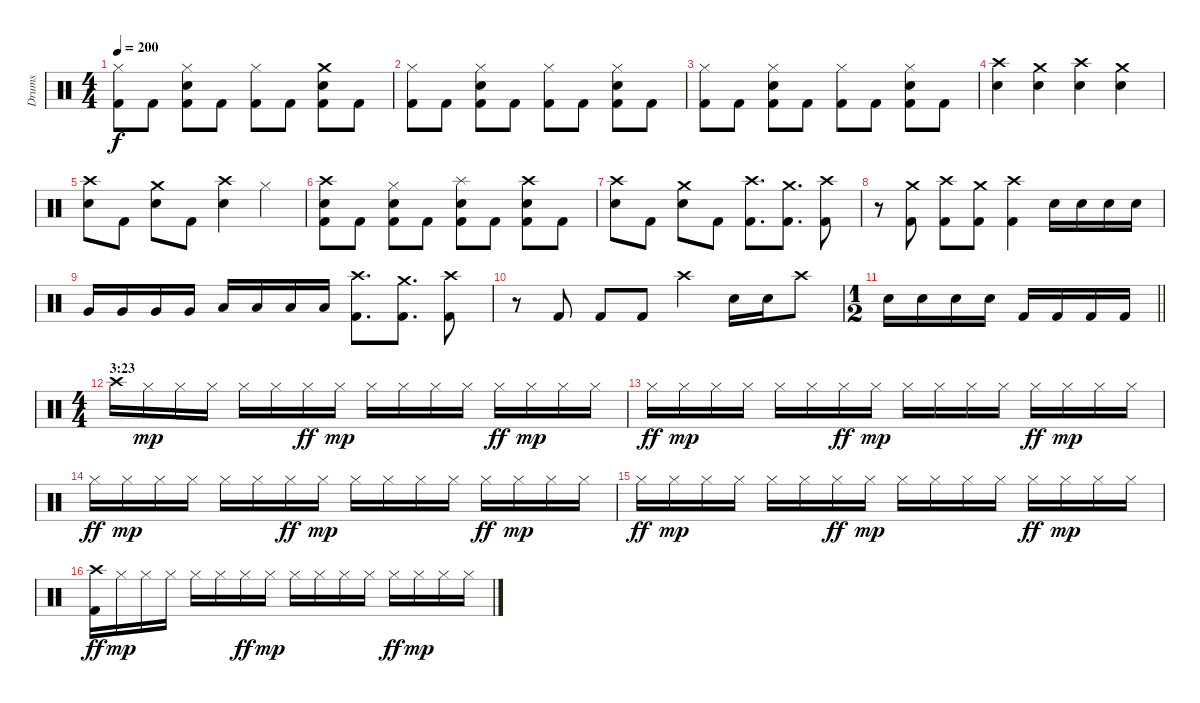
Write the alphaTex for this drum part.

\track ("Drums" "Drums") {instrument percussion}
\staff {score}
\articulation defaults
\ts (4 4)
\tempo 200
\clef neutral
\ks c
("Hi-Hat (closed)" "Kick (hit) 2").8{dy f} "Kick (hit) 2".8 ("Hi-Hat (closed)" "Snare (hit) 2" "Kick (hit) 2").8 "Kick (hit) 2".8 ("Hi-Hat (closed)" "Kick (hit) 2").8 "Kick (hit) 2".8 ("Crash medium (hit)" "Snare (hit) 2" "Kick (hit) 2").8 "Kick (hit) 2".8 |
("Hi-Hat (closed)" "Kick (hit) 2").8 "Kick (hit) 2".8 ("Hi-Hat (closed)" "Snare (hit) 2" "Kick (hit) 2").8 "Kick (hit) 2".8 ("Hi-Hat (closed)" "Kick (hit) 2").8 "Kick (hit) 2".8 ("Hi-Hat (closed)" "Snare (hit) 2" "Kick (hit) 2").8 "Kick (hit) 2".8 |
("Hi-Hat (closed)" "Kick (hit) 2").8 "Kick (hit) 2".8 ("Hi-Hat (closed)" "Snare (hit) 2" "Kick (hit) 2").8 "Kick (hit) 2".8 ("Hi-Hat (closed)" "Kick (hit) 2").8 "Kick (hit) 2".8 ("Hi-Hat (closed)" "Snare (hit) 2" "Kick (hit) 2").8 "Kick (hit) 2".8 |
("Crash high (hit)" "Snare (hit) 2").4 ("Crash medium (hit)" "Snare (hit) 2").4 ("Crash high (hit)" "Snare (hit) 2").4 ("Crash medium (hit)" "Snare (hit) 2").4 |
("Crash high (hit)" "Snare (hit) 2").8 "Kick (hit) 2".8 ("Crash medium (hit)" "Snare (hit) 2").8 "Kick (hit) 2".8 ("Crash high (hit)" "Snare (hit) 2").4 "Hi-Hat (closed)".4 |
("Crash high (hit)" "Snare (hit) 2" "Kick (hit) 2").8 "Kick (hit) 2".8 ("Hi-Hat (closed)" "Snare (hit) 2" "Kick (hit) 2").8 "Kick (hit) 2".8 ("Splash (hit)" "Snare (hit) 2" "Kick (hit) 2").8 "Kick (hit) 2".8 ("Crash high (hit)" "Snare (hit) 2" "Kick (hit) 2").8 "Kick (hit) 2".8 |
("Crash high (hit)" "Snare (hit) 2").8 "Kick (hit) 2".8 ("Crash medium (hit)" "Snare (hit) 2").8 "Kick (hit) 2".8 ("Crash high (hit)" "Kick (hit) 2").8{d} ("Crash medium (hit)" "Kick (hit) 2").8{d} ("Crash high (hit)" "Kick (hit) 2").8 |
r.8 ("Crash medium (hit)" "Kick (hit) 2").8 ("Crash high (hit)" "Kick (hit) 2").8 ("Crash medium (hit)" "Kick (hit) 2").8 ("Crash high (hit)" "Kick (hit) 2").4 "Snare (hit) 2".16 "Snare (hit) 2".16 "Snare (hit) 2".16 "Snare (hit) 2".16 |
"Very Low Tom (hit)".16 "Very Low Tom (hit)".16 "Very Low Tom (hit)".16 "Very Low Tom (hit)".16 "Low Floor Tom (hit)".16 "Low Floor Tom (hit)".16 "Low Floor Tom (hit)".16 "Low Floor Tom (hit)".16 ("Crash high (hit)" "Kick (hit) 2").8{d} ("Crash medium (hit)" "Kick (hit) 2").8{d} ("Crash high (hit)" "Kick (hit) 2").8 |
r.8 "Kick (hit) 2".8 "Kick (hit) 2".8 "Kick (hit) 2".8 "Crash high (hit)".4 "Snare (hit) 2".16 "Snare (hit) 2".16 "Crash high (hit)".8 |
\ts (1 2)
\barLineRight lightlight "Snare (hit) 2".16 "Snare (hit) 2".16 "Snare (hit) 2".16 "Snare (hit) 2".16 "Kick (hit) 2".16 "Kick (hit) 2".16 "Kick (hit) 2".16 "Kick (hit) 2".16
|
\ts (4 4)
\section ("" "3:23")
"Crash high (hit)".16 "Hi-Hat (closed)".16{dy mp} "Hi-Hat (closed)".16 "Hi-Hat (closed)".16 "Hi-Hat (closed)".16 "Hi-Hat (closed)".16 "Hi-Hat (closed)".16{dy ff} "Hi-Hat (closed)".16{dy mp} "Hi-Hat (closed)".16 "Hi-Hat (closed)".16 "Hi-Hat (closed)".16 "Hi-Hat (closed)".16 "Hi-Hat (closed)".16{dy ff} "Hi-Hat (closed)".16{dy mp} "Hi-Hat (closed)".16 "Hi-Hat (closed)".16 |
"Hi-Hat (closed)".16{dy ff} "Hi-Hat (closed)".16{dy mp} "Hi-Hat (closed)".16 "Hi-Hat (closed)".16 "Hi-Hat (closed)".16 "Hi-Hat (closed)".16 "Hi-Hat (closed)".16{dy ff} "Hi-Hat (closed)".16{dy mp} "Hi-Hat (closed)".16 "Hi-Hat (closed)".16 "Hi-Hat (closed)".16 "Hi-Hat (closed)".16 "Hi-Hat (closed)".16{dy ff} "Hi-Hat (closed)".16{dy mp} "Hi-Hat (closed)".16 "Hi-Hat (closed)".16 |
"Hi-Hat (closed)".16{dy ff} "Hi-Hat (closed)".16{dy mp} "Hi-Hat (closed)".16 "Hi-Hat (closed)".16 "Hi-Hat (closed)".16 "Hi-Hat (closed)".16 "Hi-Hat (closed)".16{dy ff} "Hi-Hat (closed)".16{dy mp} "Hi-Hat (closed)".16 "Hi-Hat (closed)".16 "Hi-Hat (closed)".16 "Hi-Hat (closed)".16 "Hi-Hat (closed)".16{dy ff} "Hi-Hat (closed)".16{dy mp} "Hi-Hat (closed)".16 "Hi-Hat (closed)".16 |
"Hi-Hat (closed)".16{dy ff} "Hi-Hat (closed)".16{dy mp} "Hi-Hat (closed)".16 "Hi-Hat (closed)".16 "Hi-Hat (closed)".16 "Hi-Hat (closed)".16 "Hi-Hat (closed)".16{dy ff} "Hi-Hat (closed)".16{dy mp} "Hi-Hat (closed)".16 "Hi-Hat (closed)".16 "Hi-Hat (closed)".16 "Hi-Hat (closed)".16 "Hi-Hat (closed)".16{dy ff} "Hi-Hat (closed)".16{dy mp} "Hi-Hat (closed)".16 "Hi-Hat (closed)".16 |
("Crash high (hit)" "Kick (hit) 2").16{dy ff} "Hi-Hat (closed)".16{dy mp} "Hi-Hat (closed)".16 "Hi-Hat (closed)".16 "Hi-Hat (closed)".16 "Hi-Hat (closed)".16 "Hi-Hat (closed)".16{dy ff} "Hi-Hat (closed)".16{dy mp} "Hi-Hat (closed)".16 "Hi-Hat (closed)".16 "Hi-Hat (closed)".16 "Hi-Hat (closed)".16 "Hi-Hat (closed)".16{dy ff} "Hi-Hat (closed)".16{dy mp} "Hi-Hat (closed)".16 "Hi-Hat (closed)".16
